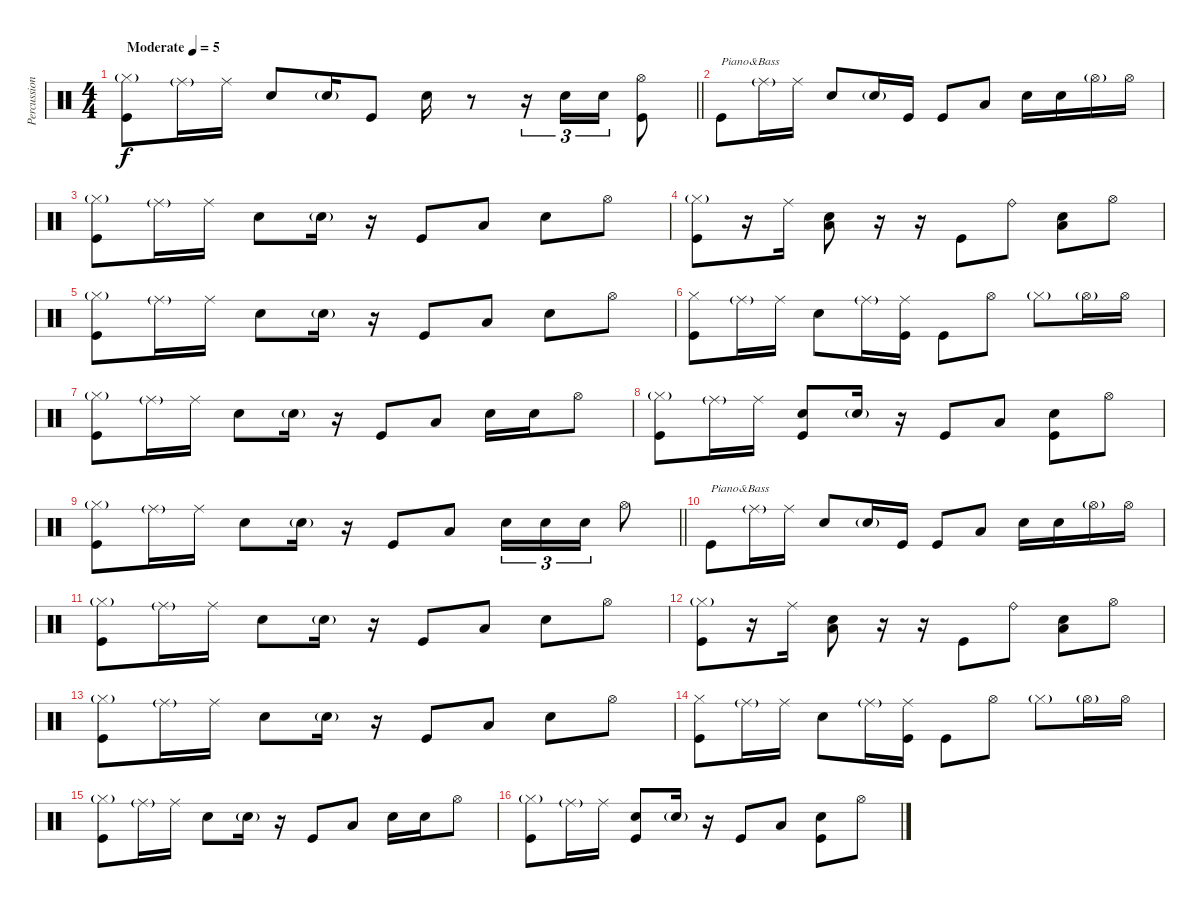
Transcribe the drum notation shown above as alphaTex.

\track ("Percussion" "Percussion") {instrument percussion}
\staff {score}
\articulation defaults
\ts (4 4)
\tempo (5 "Moderate")
\tempo 72
\tempo (5 "Moderate")
\clef neutral
\barLineRight lightlight
\ks c
("Hi-Hat (closed)"{g} "Kick (hit)").8{dy f} "Ride (middle)"{g}.16 "Ride (middle)".16 "Snare (hit) 2".8 "Snare (hit) 2"{g}.16 "Kick (hit)".8 "Snare (hit) 2".16 r.8 r.16{tu (3 2)} "Snare (hit) 2".16{tu (3 2)} "Snare (hit) 2".16{tu (3 2)} ("Hi-Hat (open)" "Kick (hit)").8 |
"Kick (hit)".8{txt "Piano&Bass"} "Ride (middle)"{g}.16 "Ride (middle)".16 "Snare (hit) 2".8 "Snare (hit) 2"{g}.16 "Kick (hit)".16 "Kick (hit)".8 "Low Floor Tom (hit)".8 "Snare (hit) 2".16 "Snare (hit) 2".16 "Hi-Hat (open)"{g}.16 "Hi-Hat (open)".16 |
("Hi-Hat (closed)"{g} "Kick (hit)").8 "Ride (middle)"{g}.16 "Ride (middle)".16 "Snare (hit) 2".8 "Snare (hit) 2"{g}.16 r.16 "Kick (hit)".8 "Low Floor Tom (hit)".8 "Snare (hit) 2".8 "Hi-Hat (open)".8 |
("Hi-Hat (closed)"{g} "Kick (hit)").8 r.16 "Ride (middle)".16 ("Snare (hit) 2" "Low Floor Tom (hit)").8 r.16 r.16 "Kick (hit)".8 "Ride (bell)".8 ("Snare (hit) 2" "Low Floor Tom (hit)").8 "Hi-Hat (open)".8 |
("Hi-Hat (closed)"{g} "Kick (hit)").8 "Ride (middle)"{g}.16 "Ride (middle)".16 "Snare (hit) 2".8 "Snare (hit) 2"{g}.16 r.16 "Kick (hit)".8 "Low Floor Tom (hit)".8 "Snare (hit) 2".8 "Hi-Hat (open)".8 |
("Hi-Hat (closed)" "Kick (hit)").8 "Ride (middle)"{g}.16 "Ride (middle)".16 "Snare (hit) 2".8 "Ride (middle)"{g}.16 ("Ride (middle)" "Kick (hit)").16 "Kick (hit)".8 "Hi-Hat (open)".8 "Hi-Hat (closed)"{g}.8 "Hi-Hat (open)"{g}.16 "Hi-Hat (open)".16 |
("Hi-Hat (closed)"{g} "Kick (hit)").8 "Ride (middle)"{g}.16 "Ride (middle)".16 "Snare (hit) 2".8 "Snare (hit) 2"{g}.16 r.16 "Kick (hit)".8 "Low Floor Tom (hit)".8 "Snare (hit) 2".16 "Snare (hit) 2".16 "Hi-Hat (open)".8 |
("Hi-Hat (closed)"{g} "Kick (hit)").8 "Ride (middle)"{g}.16 "Ride (middle)".16 ("Snare (hit) 2" "Kick (hit)").8 "Snare (hit) 2"{g}.16 r.16 "Kick (hit)".8 "Low Floor Tom (hit)".8 ("Snare (hit) 2" "Kick (hit)").8 "Hi-Hat (open)".8 |
\barLineRight lightlight
("Hi-Hat (closed)"{g} "Kick (hit)").8 "Ride (middle)"{g}.16 "Ride (middle)".16 "Snare (hit) 2".8 "Snare (hit) 2"{g}.16 r.16 "Kick (hit)".8 "Low Floor Tom (hit)".8 "Snare (hit) 2".16{tu (3 2)} "Snare (hit) 2".16{tu (3 2)} "Snare (hit) 2".16{tu (3 2)} "Hi-Hat (open)".8 |
"Kick (hit)".8{txt "Piano&Bass"} "Ride (middle)"{g}.16 "Ride (middle)".16 "Snare (hit) 2".8 "Snare (hit) 2"{g}.16 "Kick (hit)".16 "Kick (hit)".8 "Low Floor Tom (hit)".8 "Snare (hit) 2".16 "Snare (hit) 2".16 "Hi-Hat (open)"{g}.16 "Hi-Hat (open)".16 |
("Hi-Hat (closed)"{g} "Kick (hit)").8 "Ride (middle)"{g}.16 "Ride (middle)".16 "Snare (hit) 2".8 "Snare (hit) 2"{g}.16 r.16 "Kick (hit)".8 "Low Floor Tom (hit)".8 "Snare (hit) 2".8 "Hi-Hat (open)".8 |
("Hi-Hat (closed)"{g} "Kick (hit)").8 r.16 "Ride (middle)".16 ("Snare (hit) 2" "Low Floor Tom (hit)").8 r.16 r.16 "Kick (hit)".8 "Ride (bell)".8 ("Snare (hit) 2" "Low Floor Tom (hit)").8 "Hi-Hat (open)".8 |
("Hi-Hat (closed)"{g} "Kick (hit)").8 "Ride (middle)"{g}.16 "Ride (middle)".16 "Snare (hit) 2".8 "Snare (hit) 2"{g}.16 r.16 "Kick (hit)".8 "Low Floor Tom (hit)".8 "Snare (hit) 2".8 "Hi-Hat (open)".8 |
("Hi-Hat (closed)" "Kick (hit)").8 "Ride (middle)"{g}.16 "Ride (middle)".16 "Snare (hit) 2".8 "Ride (middle)"{g}.16 ("Ride (middle)" "Kick (hit)").16 "Kick (hit)".8 "Hi-Hat (open)".8 "Hi-Hat (closed)"{g}.8 "Hi-Hat (open)"{g}.16 "Hi-Hat (open)".16 |
("Hi-Hat (closed)"{g} "Kick (hit)").8 "Ride (middle)"{g}.16 "Ride (middle)".16 "Snare (hit) 2".8 "Snare (hit) 2"{g}.16 r.16 "Kick (hit)".8 "Low Floor Tom (hit)".8 "Snare (hit) 2".16 "Snare (hit) 2".16 "Hi-Hat (open)".8 |
("Hi-Hat (closed)"{g} "Kick (hit)").8 "Ride (middle)"{g}.16 "Ride (middle)".16 ("Snare (hit) 2" "Kick (hit)").8 "Snare (hit) 2"{g}.16 r.16 "Kick (hit)".8 "Low Floor Tom (hit)".8 ("Snare (hit) 2" "Kick (hit)").8 "Hi-Hat (open)".8
